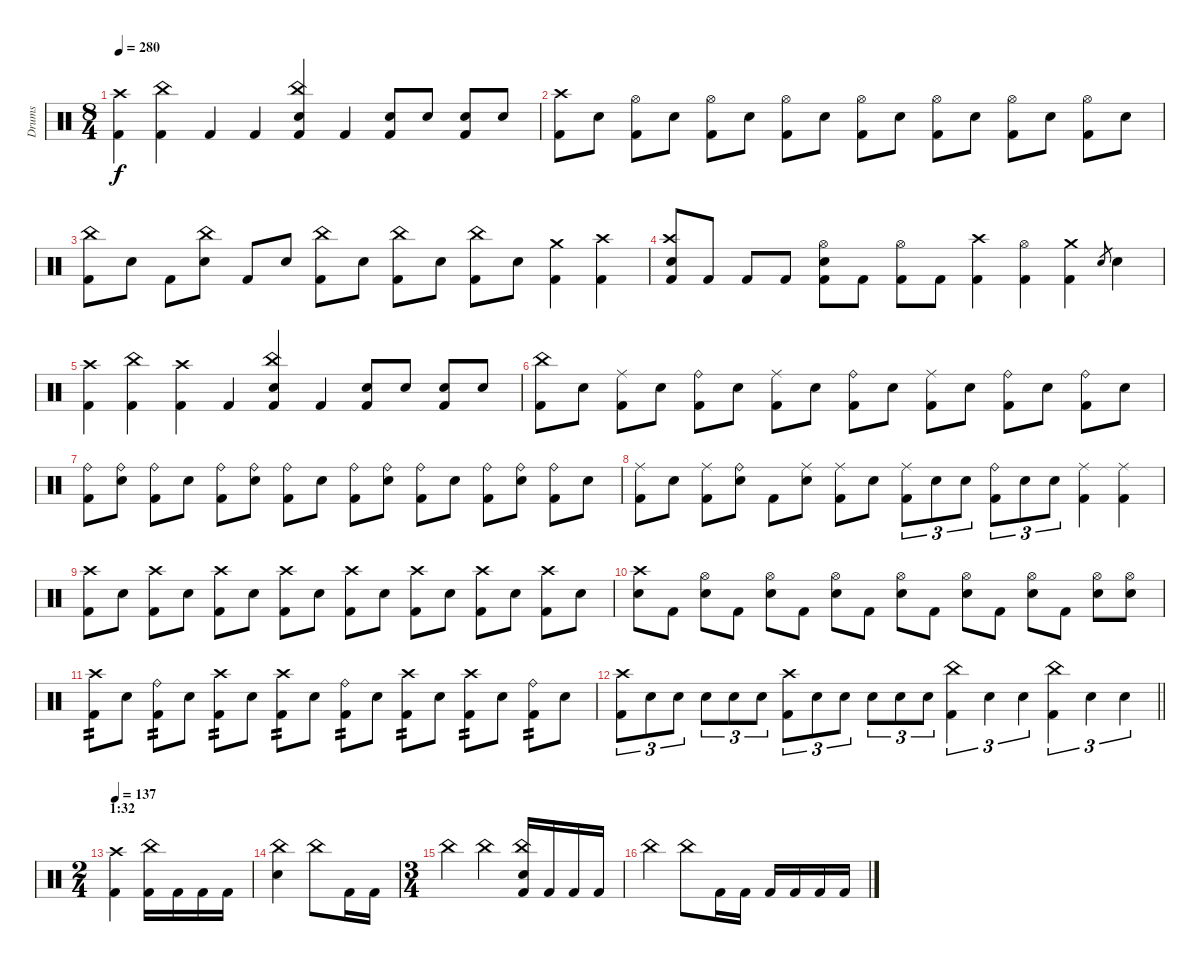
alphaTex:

\track ("Drums" "Drums") {instrument percussion}
\staff {score}
\articulation defaults
\ts (8 4)
\tempo 280
\clef neutral
\ks c
("Kick (hit) 2" "Crash high (hit)").4{dy f} ("Kick (hit) 2" "China (hit)").4 "Kick (hit) 2".4 "Kick (hit) 2".4 ("Kick (hit) 2" "China (hit)" "Electric Snare (hit)").4 "Kick (hit) 2".4 ("Kick (hit) 2" "Electric Snare (hit)").8 "Electric Snare (hit)".8 ("Kick (hit) 2" "Electric Snare (hit)").8 "Electric Snare (hit)".8 |
("Crash high (hit)" "Kick (hit) 2").8 "Electric Snare (hit)".8 ("Hi-Hat (open)" "Kick (hit) 2").8 "Electric Snare (hit)".8 ("Hi-Hat (open)" "Kick (hit) 2").8 "Electric Snare (hit)".8 ("Hi-Hat (open)" "Kick (hit) 2").8 "Electric Snare (hit)".8 ("Hi-Hat (open)" "Kick (hit) 2").8 "Electric Snare (hit)".8 ("Hi-Hat (open)" "Kick (hit) 2").8 "Electric Snare (hit)".8 ("Hi-Hat (open)" "Kick (hit) 2").8 "Electric Snare (hit)".8 ("Hi-Hat (open)" "Kick (hit) 2").8 "Electric Snare (hit)".8 |
("China (hit)" "Kick (hit) 2").8 "Electric Snare (hit)".8 "Kick (hit) 2".8 ("Electric Snare (hit)" "China (hit)").8 "Kick (hit) 2".8 "Electric Snare (hit)".8 ("China (hit)" "Kick (hit) 2").8 "Electric Snare (hit)".8 ("China (hit)" "Kick (hit) 2").8 "Electric Snare (hit)".8 ("China (hit)" "Kick (hit) 2").8 "Electric Snare (hit)".8 ("Crash medium (hit)" "Kick (hit) 2").4 ("Crash high (hit)" "Kick (hit) 2").4 |
("Kick (hit) 2" "Crash high (hit)" "Electric Snare (hit)").8 "Kick (hit) 2".8 "Kick (hit) 2".8 "Kick (hit) 2".8 ("Kick (hit) 2" "Hi-Hat (open)" "Electric Snare (hit)").8 "Kick (hit) 2".8 ("Kick (hit) 2" "Hi-Hat (open)").8 "Kick (hit) 2".8 ("Kick (hit) 2" "Crash high (hit)").4 ("Kick (hit) 2" "Hi-Hat (open)").4 ("Kick (hit) 2" "Crash medium (hit)").4 "Electric Snare (hit)".8{gr} "Electric Snare (hit)".4 |
("Kick (hit) 2" "Crash high (hit)").4 ("Kick (hit) 2" "China (hit)").4 ("Kick (hit) 2" "Crash high (hit)").4 "Kick (hit) 2".4 ("Kick (hit) 2" "China (hit)" "Electric Snare (hit)").4 "Kick (hit) 2".4 ("Kick (hit) 2" "Electric Snare (hit)").8 "Electric Snare (hit)".8 ("Kick (hit) 2" "Electric Snare (hit)").8 "Electric Snare (hit)".8 |
("China (hit)" "Kick (hit) 2").8 "Electric Snare (hit)".8 ("Ride (middle)" "Kick (hit) 2").8 "Electric Snare (hit)".8 ("Ride (bell)" "Kick (hit) 2").8 "Electric Snare (hit)".8 ("Ride (middle)" "Kick (hit) 2").8 "Electric Snare (hit)".8 ("Ride (bell)" "Kick (hit) 2").8 "Electric Snare (hit)".8 ("Ride (middle)" "Kick (hit) 2").8 "Electric Snare (hit)".8 ("Ride (bell)" "Kick (hit) 2").8 "Electric Snare (hit)".8 ("Ride (bell)" "Kick (hit) 2").8 "Electric Snare (hit)".8 |
("Ride (bell)" "Kick (hit) 2").8 ("Electric Snare (hit)" "Ride (bell)").8 ("Ride (bell)" "Kick (hit) 2").8 "Electric Snare (hit)".8 ("Ride (bell)" "Kick (hit) 2").8 ("Electric Snare (hit)" "Ride (bell)").8 ("Ride (bell)" "Kick (hit) 2").8 "Electric Snare (hit)".8 ("Ride (bell)" "Kick (hit) 2").8 ("Electric Snare (hit)" "Ride (bell)").8 ("Ride (bell)" "Kick (hit) 2").8 "Electric Snare (hit)".8 ("Ride (bell)" "Kick (hit) 2").8 ("Electric Snare (hit)" "Ride (bell)").8 ("Ride (bell)" "Kick (hit) 2").8 "Electric Snare (hit)".8 |
("Ride (middle)" "Kick (hit) 2").8 "Electric Snare (hit)".8 ("Ride (middle)" "Kick (hit) 2").8 ("Electric Snare (hit)" "Ride (bell)").8 "Kick (hit) 2".8 ("Electric Snare (hit)" "Ride (middle)").8 ("Ride (middle)" "Kick (hit) 2").8 "Electric Snare (hit)".8 ("Ride (middle)" "Kick (hit) 2").8{tu (3 2)} "Electric Snare (hit)".8{tu (3 2)} "Electric Snare (hit)".8{tu (3 2)} ("Ride (bell)" "Kick (hit) 2").8{tu (3 2)} "Electric Snare (hit)".8{tu (3 2)} "Electric Snare (hit)".8{tu (3 2)} ("Kick (hit) 2" "Ride (middle)").4 ("Ride (middle)" "Kick (hit) 2").4 |
("Crash high (hit)" "Kick (hit) 2").8 "Electric Snare (hit)".8 ("Crash high (hit)" "Kick (hit) 2").8 "Electric Snare (hit)".8 ("Crash high (hit)" "Kick (hit) 2").8 "Electric Snare (hit)".8 ("Crash high (hit)" "Kick (hit) 2").8 "Electric Snare (hit)".8 ("Crash high (hit)" "Kick (hit) 2").8 "Electric Snare (hit)".8 ("Crash high (hit)" "Kick (hit) 2").8 "Electric Snare (hit)".8 ("Crash high (hit)" "Kick (hit) 2").8 "Electric Snare (hit)".8 ("Crash high (hit)" "Kick (hit) 2").8 "Electric Snare (hit)".8 |
("Electric Snare (hit)" "Crash high (hit)").8 "Kick (hit) 2".8 ("Electric Snare (hit)" "Hi-Hat (open)").8 "Kick (hit) 2".8 ("Electric Snare (hit)" "Hi-Hat (open)").8 "Kick (hit) 2".8 ("Electric Snare (hit)" "Hi-Hat (open)").8 "Kick (hit) 2".8 ("Electric Snare (hit)" "Hi-Hat (open)").8 "Kick (hit) 2".8 ("Electric Snare (hit)" "Hi-Hat (open)").8 "Kick (hit) 2".8 ("Electric Snare (hit)" "Hi-Hat (open)").8 "Kick (hit) 2".8 ("Electric Snare (hit)" "Hi-Hat (open)").8 ("Electric Snare (hit)" "Hi-Hat (open)").8 |
("Crash high (hit)" "Kick (hit) 2").8{tp 2} "Electric Snare (hit)".8 ("Kick (hit) 2" "Ride (bell)").8{tp 2} "Electric Snare (hit)".8 ("Crash high (hit)" "Kick (hit) 2").8{tp 2} "Electric Snare (hit)".8 ("Crash high (hit)" "Kick (hit) 2").8{tp 2} "Electric Snare (hit)".8 ("Kick (hit) 2" "Ride (bell)").8{tp 2} "Electric Snare (hit)".8 ("Crash high (hit)" "Kick (hit) 2").8{tp 2} "Electric Snare (hit)".8 ("Crash high (hit)" "Kick (hit) 2").8{tp 2} "Electric Snare (hit)".8 ("Kick (hit) 2" "Ride (bell)").8{tp 2} "Electric Snare (hit)".8 |
\barLineRight lightlight
("Kick (hit) 2" "Crash high (hit)").8{tu (3 2)} "Electric Snare (hit)".8{tu (3 2)} "Electric Snare (hit)".8{tu (3 2)} "Electric Snare (hit)".8{tu (3 2)} "Electric Snare (hit)".8{tu (3 2)} "Electric Snare (hit)".8{tu (3 2)} ("Crash high (hit)" "Kick (hit) 2").8{tu (3 2)} "Electric Snare (hit)".8{tu (3 2)} "Electric Snare (hit)".8{tu (3 2)} "Electric Snare (hit)".8{tu (3 2)} "Electric Snare (hit)".8{tu (3 2)} "Electric Snare (hit)".8{tu (3 2)} ("China (hit)" "Kick (hit) 2").4{tu (3 2)} "Electric Snare (hit)".4{tu (3 2)} "Electric Snare (hit)".4{tu (3 2)} ("China (hit)" "Kick (hit) 2").4{tu (3 2)} "Electric Snare (hit)".4{tu (3 2)} "Electric Snare (hit)".4{tu (3 2)} |
\ts (2 4)
\section ("" "1:32")
\tempo 137
("Crash high (hit)" "Kick (hit) 2").4 ("China (hit)" "Kick (hit) 2").16 "Kick (hit) 2".16 "Kick (hit) 2".16 "Kick (hit) 2".16 |
("China (hit)" "Electric Snare (hit)").4 "China (hit)".8 "Kick (hit) 2".16 "Kick (hit) 2".16 |
\ts (3 4)
"China (hit)".4 "China (hit)".4 ("China (hit)" "Electric Snare (hit)" "Kick (hit) 2").16 "Kick (hit) 2".16 "Kick (hit) 2".16 "Kick (hit) 2".16 |
"China (hit)".4 "China (hit)".8 "Kick (hit) 2".16 "Kick (hit) 2".16 "Kick (hit) 2".16 "Kick (hit) 2".16 "Kick (hit) 2".16 "Kick (hit) 2".16
